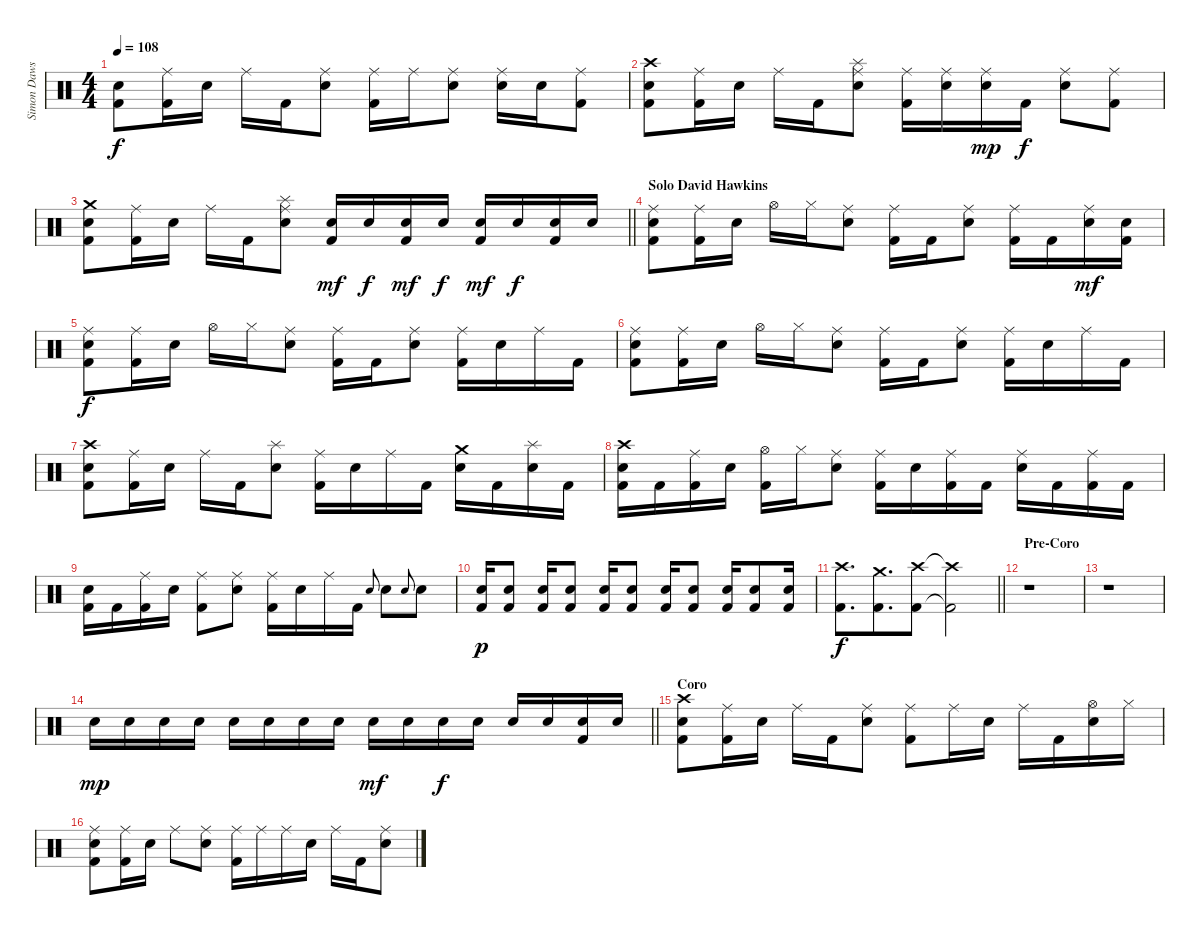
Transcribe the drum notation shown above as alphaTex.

\track ("Simon Dawson" "Simon Daws") {instrument percussion}
\staff {score}
\articulation defaults
\ts (4 4)
\tempo 108
\clef neutral
\ks c
("Snare (hit) 2" "Kick (hit) 2").8{dy f} ("Ride (middle)" "Kick (hit) 2").16 "Snare (hit) 2".16 "Ride (middle)".16 "Kick (hit) 2".16 ("Ride (middle)" "Snare (hit) 2").8 ("Ride (middle)" "Kick (hit) 2").16 "Ride (middle)".16 ("Ride (middle)" "Snare (hit) 2").8 ("Ride (middle)" "Snare (hit) 2").16 "Snare (hit) 2".16 ("Ride (middle)" "Kick (hit) 2").8 |
("Snare (hit) 2" "Crash high (hit)" "Kick (hit) 2").8 ("Ride (middle)" "Kick (hit) 2").16 "Snare (hit) 2".16 "Ride (middle)".16 "Kick (hit) 2".16 ("Ride (middle)" "Snare (hit) 2" "Splash (hit)").8 ("Ride (middle)" "Kick (hit) 2").16 ("Ride (middle)" "Snare (hit) 2").16 ("Ride (middle)" "Snare (hit) 2").16{dy mp} "Kick (hit) 2".16{dy f} ("Ride (middle)" "Snare (hit) 2").8 ("Ride (middle)" "Kick (hit) 2").8 |
\barLineRight lightlight
("Snare (hit) 2" "Crash medium (hit)" "Kick (hit) 2").8 ("Ride (middle)" "Kick (hit) 2").16 "Snare (hit) 2".16 "Ride (middle)".16 "Kick (hit) 2".16 ("Ride (middle)" "Snare (hit) 2" "Splash (hit)").8 ("Snare (hit) 2" "Kick (hit) 2").16{dy mf} "Snare (hit) 2".16{dy f} ("Snare (hit) 2" "Kick (hit) 2").16{dy mf} "Snare (hit) 2".16{dy f} ("Snare (hit) 2" "Kick (hit) 2").16{dy mf} "Snare (hit) 2".16{dy f} ("Snare (hit) 2" "Kick (hit) 2").16 "Snare (hit) 2".16 |
\section ("" "Solo David Hawkins")
("Ride (middle)" "Snare (hit) 2" "Kick (hit) 2").8 ("Ride (middle)" "Kick (hit) 2").16 "Snare (hit) 2".16 "Hi-Hat (open)".16 "Hi-Hat (closed)".16 ("Ride (middle)" "Snare (hit) 2").8 ("Ride (middle)" "Kick (hit) 2").16 "Kick (hit) 2".16 ("Ride (middle)" "Snare (hit) 2").8 ("Ride (middle)" "Kick (hit) 2").16 "Kick (hit) 2".16 ("Ride (middle)" "Snare (hit) 2").16{dy mf} ("Snare (hit) 2" "Kick (hit) 2").16 |
("Ride (middle)" "Snare (hit) 2" "Kick (hit) 2").8{dy f} ("Ride (middle)" "Kick (hit) 2").16 "Snare (hit) 2".16 "Hi-Hat (open)".16 "Hi-Hat (closed)".16 ("Ride (middle)" "Snare (hit) 2").8 ("Ride (middle)" "Kick (hit) 2").16 "Kick (hit) 2".16 ("Ride (middle)" "Snare (hit) 2").8 ("Ride (middle)" "Kick (hit) 2").16 "Snare (hit) 2".16 "Ride (middle)".16 "Kick (hit) 2".16 |
("Ride (middle)" "Snare (hit) 2" "Kick (hit) 2").8 ("Ride (middle)" "Kick (hit) 2").16 "Snare (hit) 2".16 "Hi-Hat (open)".16 "Hi-Hat (closed)".16 ("Ride (middle)" "Snare (hit) 2").8 ("Ride (middle)" "Kick (hit) 2").16 "Kick (hit) 2".16 ("Ride (middle)" "Snare (hit) 2").8 ("Ride (middle)" "Kick (hit) 2").16 "Snare (hit) 2".16 "Ride (middle)".16 "Kick (hit) 2".16 |
("Snare (hit) 2" "Crash high (hit)" "Kick (hit) 2").8 ("Ride (middle)" "Kick (hit) 2").16 "Snare (hit) 2".16 "Ride (middle)".16 "Kick (hit) 2".16 ("Snare (hit) 2" "Splash (hit)").8 ("Ride (middle)" "Kick (hit) 2").16 "Snare (hit) 2".16 "Ride (middle)".16 "Kick (hit) 2".16 ("Snare (hit) 2" "Crash medium (hit)").16 "Kick (hit) 2".16 ("Snare (hit) 2" "Splash (hit)").16 "Kick (hit) 2".16 |
("Snare (hit) 2" "Crash high (hit)" "Kick (hit) 2").16 "Kick (hit) 2".16 ("Ride (middle)" "Kick (hit) 2").16 "Snare (hit) 2".16 ("Hi-Hat (open)" "Kick (hit) 2").16 "Hi-Hat (closed)".16 ("Ride (middle)" "Snare (hit) 2").8 ("Ride (middle)" "Kick (hit) 2").16 "Snare (hit) 2".16 ("Ride (middle)" "Kick (hit) 2").16 "Kick (hit) 2".16 ("Ride (middle)" "Snare (hit) 2").16 "Kick (hit) 2".16 ("Ride (middle)" "Kick (hit) 2").16 "Kick (hit) 2".16 |
("Snare (hit) 2" "Kick (hit) 2").16 "Kick (hit) 2".16 ("Ride (middle)" "Kick (hit) 2").16 "Snare (hit) 2".16 ("Ride (middle)" "Kick (hit) 2").8 ("Ride (middle)" "Snare (hit) 2").8 ("Ride (middle)" "Kick (hit) 2").16 "Snare (hit) 2".16 "Ride (middle)".16 "Kick (hit) 2".16 "Snare (hit) 2".8{gr onbeat} "Snare (hit) 2".8 "Snare (hit) 2".8{gr onbeat} "Snare (hit) 2".8 |
("Snare (hit) 2" "Kick (hit) 2").16{dy p beam merge} ("Snare (hit) 2" "Kick (hit) 2").8{beam split} ("Snare (hit) 2" "Kick (hit) 2").16{beam merge} ("Snare (hit) 2" "Kick (hit) 2").8{beam split} ("Snare (hit) 2" "Kick (hit) 2").16{beam merge} ("Snare (hit) 2" "Kick (hit) 2").8 ("Snare (hit) 2" "Kick (hit) 2").16{beam merge} ("Snare (hit) 2" "Kick (hit) 2").8 ("Snare (hit) 2" "Kick (hit) 2").16{beam merge} ("Snare (hit) 2" "Kick (hit) 2").8{beam merge} ("Snare (hit) 2" "Kick (hit) 2").16 |
\barLineRight lightlight
("Crash high (hit)" "Kick (hit) 2").8{d dy f} ("Crash medium (hit)" "Kick (hit) 2").8{d beam merge} ("Crash high (hit)" "Kick (hit) 2").8 ("Crash high (hit)"{t} "Kick (hit) 2"{t}).2 |
\section ("" "Pre-Coro")
r.1 |
r.1 |
\barLineRight lightlight "Snare (hit) 2".16{dy mp} "Snare (hit) 2".16 "Snare (hit) 2".16 "Snare (hit) 2".16 "Snare (hit) 2".16 "Snare (hit) 2".16 "Snare (hit) 2".16 "Snare (hit) 2".16 "Snare (hit) 2".16{dy mf} "Snare (hit) 2".16 "Snare (hit) 2".16{dy f} "Snare (hit) 2".16 "Snare (hit) 2".16 "Snare (hit) 2".16
("Snare (hit) 2" "Kick (hit) 2").16 "Snare (hit) 2".16 |
\section ("" "Coro")
("Snare (hit) 2" "Crash high (hit)" "Kick (hit) 2").8 ("Ride (middle)" "Kick (hit) 2").16 "Snare (hit) 2".16 "Ride (middle)".16 "Kick (hit) 2".16 ("Ride (middle)" "Snare (hit) 2").8 ("Ride (middle)" "Kick (hit) 2").8 "Ride (middle)".16 "Snare (hit) 2".16 "Ride (middle)".16 "Kick (hit) 2".16 ("Hi-Hat (open)" "Snare (hit) 2").16 "Hi-Hat (closed)".16 |
("Ride (middle)" "Snare (hit) 2" "Kick (hit) 2").8 ("Ride (middle)" "Kick (hit) 2").16 "Snare (hit) 2".16 "Ride (middle)".8 ("Ride (middle)" "Snare (hit) 2").8 ("Ride (middle)" "Kick (hit) 2").16 "Ride (middle)".16 "Ride (middle)".16 "Snare (hit) 2".16 "Ride (middle)".16 "Kick (hit) 2".16 ("Ride (middle)" "Snare (hit) 2").8
